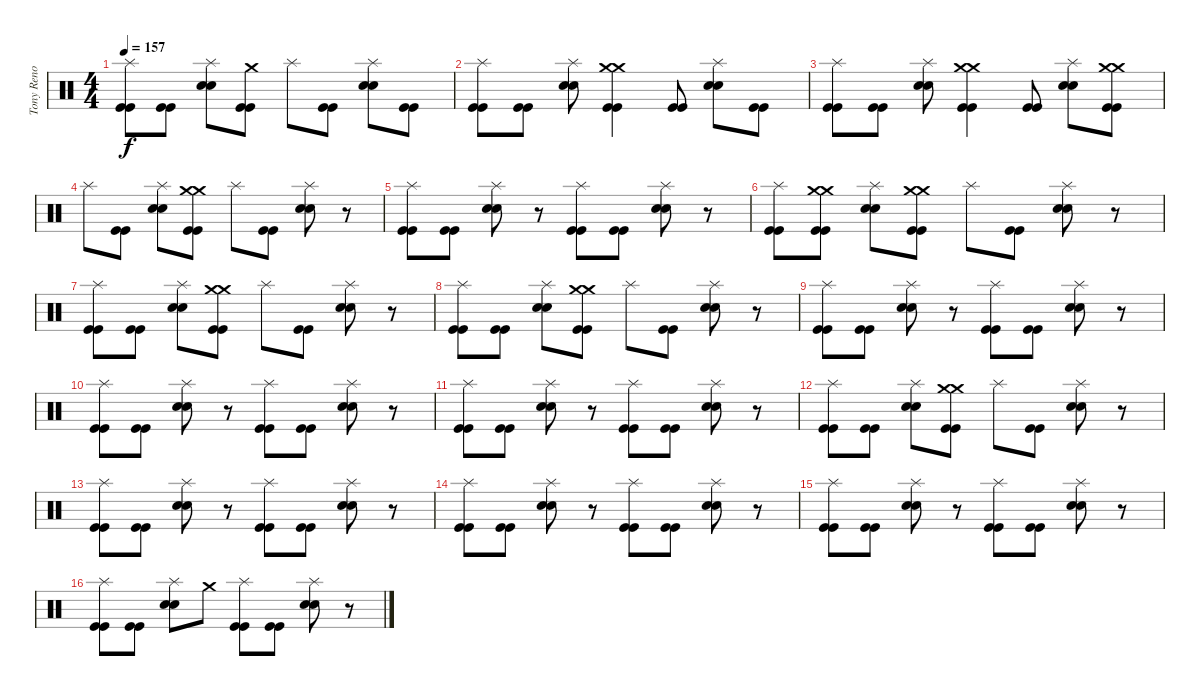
\track ("Tony Reno ( 1984 < Ian Haughland )" "Tony Reno ") {instrument percussion}
\staff {score}
\articulation defaults
\ts (4 4)
\tempo 157
\clef neutral
\ks c
("Splash (hit)" "Kick (hit)" "Kick (hit)").8{dy f} ("Kick (hit)" "Kick (hit)").8 ("Electric Snare (hit)" "Electric Snare (hit)" "Splash (hit)").8 ("Kick (hit)" "Kick (hit)" "Crash medium (hit)").8 "Splash (hit)".8 ("Kick (hit)" "Kick (hit)").8 ("Electric Snare (hit)" "Electric Snare (hit)" "Splash (hit)").8 ("Kick (hit)" "Kick (hit)").8 |
("Kick (hit)" "Kick (hit)" "Splash (hit)").8 ("Kick (hit)" "Kick (hit)").8 ("Electric Snare (hit)" "Electric Snare (hit)" "Splash (hit)").8 ("Crash medium (hit)" "Crash medium (hit)" "Kick (hit)" "Kick (hit)").4 ("Kick (hit)" "Kick (hit)").8 ("Splash (hit)" "Electric Snare (hit)" "Electric Snare (hit)").8 ("Kick (hit)" "Kick (hit)").8 |
("Splash (hit)" "Kick (hit)" "Kick (hit)").8 ("Kick (hit)" "Kick (hit)").8 ("Electric Snare (hit)" "Electric Snare (hit)" "Splash (hit)").8 ("Crash medium (hit)" "Crash medium (hit)" "Kick (hit)" "Kick (hit)").4 ("Kick (hit)" "Kick (hit)").8 ("Splash (hit)" "Electric Snare (hit)" "Electric Snare (hit)").8 ("Crash medium (hit)" "Kick (hit)" "Kick (hit)" "Crash medium (hit)").8 |
"Splash (hit)".8 ("Kick (hit)" "Kick (hit)").8 ("Electric Snare (hit)" "Electric Snare (hit)" "Splash (hit)").8 ("Crash medium (hit)" "Kick (hit)" "Kick (hit)" "Crash medium (hit)").8 "Splash (hit)".8 ("Kick (hit)" "Kick (hit)").8 ("Splash (hit)" "Electric Snare (hit)" "Electric Snare (hit)").8 r.8 |
("Kick (hit)" "Kick (hit)" "Splash (hit)").8 ("Kick (hit)" "Kick (hit)").8 ("Splash (hit)" "Electric Snare (hit)" "Electric Snare (hit)").8 r.8 ("Kick (hit)" "Kick (hit)" "Splash (hit)").8 ("Kick (hit)" "Kick (hit)").8 ("Splash (hit)" "Electric Snare (hit)" "Electric Snare (hit)").8 r.8 |
("Kick (hit)" "Kick (hit)" "Splash (hit)").8 ("Crash medium (hit)" "Crash medium (hit)" "Kick (hit)" "Kick (hit)").8 ("Splash (hit)" "Electric Snare (hit)" "Electric Snare (hit)").8 ("Crash medium (hit)" "Kick (hit)" "Kick (hit)" "Crash medium (hit)").8 "Splash (hit)".8 ("Kick (hit)" "Kick (hit)").8 ("Splash (hit)" "Electric Snare (hit)" "Electric Snare (hit)").8 r.8 |
("Kick (hit)" "Kick (hit)" "Splash (hit)").8 ("Kick (hit)" "Kick (hit)").8 ("Splash (hit)" "Electric Snare (hit)" "Electric Snare (hit)").8 ("Crash medium (hit)" "Kick (hit)" "Kick (hit)" "Crash medium (hit)").8 "Splash (hit)".8 ("Kick (hit)" "Kick (hit)").8 ("Splash (hit)" "Electric Snare (hit)" "Electric Snare (hit)").8 r.8 |
("Kick (hit)" "Kick (hit)" "Splash (hit)").8 ("Kick (hit)" "Kick (hit)").8 ("Splash (hit)" "Electric Snare (hit)" "Electric Snare (hit)").8 ("Crash medium (hit)" "Kick (hit)" "Kick (hit)" "Crash medium (hit)").8 "Splash (hit)".8 ("Kick (hit)" "Kick (hit)").8 ("Splash (hit)" "Electric Snare (hit)" "Electric Snare (hit)").8 r.8 |
("Kick (hit)" "Kick (hit)" "Splash (hit)").8 ("Kick (hit)" "Kick (hit)").8 ("Splash (hit)" "Electric Snare (hit)" "Electric Snare (hit)").8 r.8 ("Kick (hit)" "Kick (hit)" "Splash (hit)").8 ("Kick (hit)" "Kick (hit)").8 ("Splash (hit)" "Electric Snare (hit)" "Electric Snare (hit)").8 r.8 |
("Kick (hit)" "Kick (hit)" "Splash (hit)").8 ("Kick (hit)" "Kick (hit)").8 ("Splash (hit)" "Electric Snare (hit)" "Electric Snare (hit)").8 r.8 ("Kick (hit)" "Kick (hit)" "Splash (hit)").8 ("Kick (hit)" "Kick (hit)").8 ("Splash (hit)" "Electric Snare (hit)" "Electric Snare (hit)").8 r.8 |
("Kick (hit)" "Kick (hit)" "Splash (hit)").8 ("Kick (hit)" "Kick (hit)").8 ("Splash (hit)" "Electric Snare (hit)" "Electric Snare (hit)").8 r.8 ("Kick (hit)" "Kick (hit)" "Splash (hit)").8 ("Kick (hit)" "Kick (hit)").8 ("Splash (hit)" "Electric Snare (hit)" "Electric Snare (hit)").8 r.8 |
("Kick (hit)" "Kick (hit)" "Splash (hit)").8 ("Kick (hit)" "Kick (hit)").8 ("Splash (hit)" "Electric Snare (hit)" "Electric Snare (hit)").8 ("Crash medium (hit)" "Kick (hit)" "Kick (hit)" "Crash medium (hit)").8 "Splash (hit)".8 ("Kick (hit)" "Kick (hit)").8 ("Splash (hit)" "Electric Snare (hit)" "Electric Snare (hit)").8 r.8 |
("Kick (hit)" "Kick (hit)" "Splash (hit)").8 ("Kick (hit)" "Kick (hit)").8 ("Splash (hit)" "Electric Snare (hit)" "Electric Snare (hit)").8 r.8 ("Kick (hit)" "Kick (hit)" "Splash (hit)").8 ("Kick (hit)" "Kick (hit)").8 ("Splash (hit)" "Electric Snare (hit)" "Electric Snare (hit)").8 r.8 |
("Kick (hit)" "Kick (hit)" "Splash (hit)").8 ("Kick (hit)" "Kick (hit)").8 ("Splash (hit)" "Electric Snare (hit)" "Electric Snare (hit)").8 r.8 ("Kick (hit)" "Kick (hit)" "Splash (hit)").8 ("Kick (hit)" "Kick (hit)").8 ("Splash (hit)" "Electric Snare (hit)" "Electric Snare (hit)").8 r.8 |
("Kick (hit)" "Kick (hit)" "Splash (hit)").8 ("Kick (hit)" "Kick (hit)").8 ("Splash (hit)" "Electric Snare (hit)" "Electric Snare (hit)").8 r.8 ("Kick (hit)" "Kick (hit)" "Splash (hit)").8 ("Kick (hit)" "Kick (hit)").8 ("Splash (hit)" "Electric Snare (hit)" "Electric Snare (hit)").8 r.8 |
("Kick (hit)" "Kick (hit)" "Splash (hit)").8 ("Kick (hit)" "Kick (hit)").8 ("Splash (hit)" "Electric Snare (hit)" "Electric Snare (hit)").8 "Crash medium (hit)".8 ("Kick (hit)" "Kick (hit)" "Splash (hit)").8 ("Kick (hit)" "Kick (hit)").8 ("Splash (hit)" "Electric Snare (hit)" "Electric Snare (hit)").8 r.8
